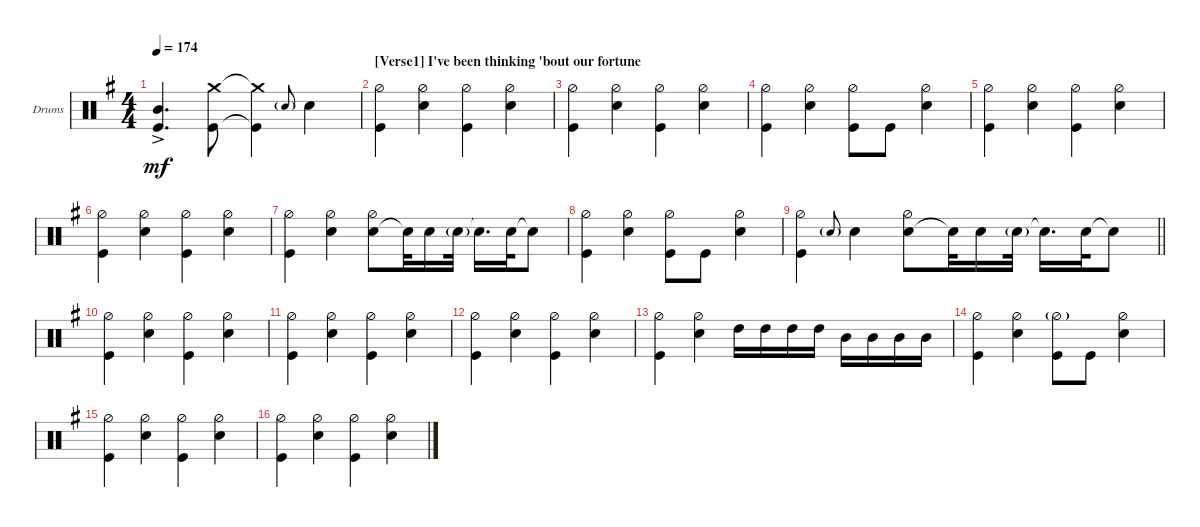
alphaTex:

\bracketExtendMode groupsimilarinstruments
\firstSystemTrackNameOrientation horizontal
\otherSystemsTrackNameOrientation horizontal
\track ("Drumkit" "Drums") {instrument percussion}
\staff {score}
\articulation defaults
\ts (4 4)
\tempo 174
\clef neutral
\scale
0.333333
\ks eminor
("Kick (hit)" "Mid Tom (hit)"{ac}).4{d dy mf} ("Kick (hit)" "Crash medium (hit)").8 ("Kick (hit)"{t} "Crash medium (hit)"{t}).4 "Snare (hit) 2"{g}.8{gr onbeat} "Snare (hit) 2".4 |
\section ("" "[Verse1] I've been thinking 'bout our fortune")
\scale
0.333333 ("Kick (hit)" "Hi-Hat (half)").4 ("Snare (hit) 2" "Hi-Hat (half)").4 ("Kick (hit)" "Hi-Hat (half)").4 ("Snare (hit) 2" "Hi-Hat (half)").4 |
\scale
0.333333 ("Kick (hit)" "Hi-Hat (half)").4 ("Snare (hit) 2" "Hi-Hat (half)").4 ("Kick (hit)" "Hi-Hat (half)").4 ("Snare (hit) 2" "Hi-Hat (half)").4 |
\scale
0.333333 ("Kick (hit)" "Hi-Hat (half)").4 ("Snare (hit) 2" "Hi-Hat (half)").4 ("Kick (hit)" "Hi-Hat (half)").8 "Kick (hit)".8 ("Snare (hit) 2" "Hi-Hat (half)").4 |
\scale
0.333333 ("Kick (hit)" "Hi-Hat (half)").4 ("Snare (hit) 2" "Hi-Hat (half)").4 ("Kick (hit)" "Hi-Hat (half)").4 ("Snare (hit) 2" "Hi-Hat (half)").4 |
\scale
0.333333 ("Kick (hit)" "Hi-Hat (half)").4 ("Snare (hit) 2" "Hi-Hat (half)").4 ("Kick (hit)" "Hi-Hat (half)").4 ("Snare (hit) 2" "Hi-Hat (half)").4 |
\scale
0.333333 ("Kick (hit)" "Hi-Hat (half)").4 ("Snare (hit) 2" "Hi-Hat (half)").4 ("Snare (hit) 2" "Hi-Hat (half)").8 "Snare (hit) 2"{t}.32 "Snare (hit) 2".16 "Snare (hit) 2"{g}.32 "Snare (hit) 2"{t}.16{d} "Snare (hit) 2".32 "Snare (hit) 2"{t}.8 |
\scale
0.333333 ("Kick (hit)" "Hi-Hat (half)").4 ("Snare (hit) 2" "Hi-Hat (half)").4 ("Kick (hit)" "Hi-Hat (half)").8 "Kick (hit)".8 ("Snare (hit) 2" "Hi-Hat (half)").4 |
\scale
0.333333
\barLineRight lightlight
("Kick (hit)" "Hi-Hat (half)").4 "Snare (hit) 2"{g}.8{gr onbeat} "Snare (hit) 2".4 ("Snare (hit) 2" "Hi-Hat (half)").8 "Snare (hit) 2"{t}.32 "Snare (hit) 2".16 "Snare (hit) 2"{g}.32 "Snare (hit) 2"{t}.16{d} "Snare (hit) 2".32 "Snare (hit) 2"{t}.8 |
\scale
0.333333 ("Kick (hit)" "Hi-Hat (half)").4 ("Snare (hit) 2" "Hi-Hat (half)").4 ("Kick (hit)" "Hi-Hat (half)").4 ("Snare (hit) 2" "Hi-Hat (half)").4 |
\scale
0.333333 ("Kick (hit)" "Hi-Hat (half)").4 ("Snare (hit) 2" "Hi-Hat (half)").4 ("Kick (hit)" "Hi-Hat (half)").4 ("Snare (hit) 2" "Hi-Hat (half)").4 |
\scale
0.333333 ("Kick (hit)" "Hi-Hat (half)").4 ("Snare (hit) 2" "Hi-Hat (half)").4 ("Kick (hit)" "Hi-Hat (half)").4 ("Snare (hit) 2" "Hi-Hat (half)").4 |
\scale
0.333333 ("Kick (hit)" "Hi-Hat (half)").4 ("Snare (hit) 2" "Hi-Hat (half)").4 "High Tom (hit)".16 "High Tom (hit)".16 "High Tom (hit)".16 "High Tom (hit)".16 "Mid Tom (hit)".16 "Mid Tom (hit)".16 "Mid Tom (hit)".16 "Mid Tom (hit)".16 |
\scale
0.333333 ("Kick (hit)" "Hi-Hat (half)").4 ("Snare (hit) 2" "Hi-Hat (half)").4 ("Kick (hit)" "Hi-Hat (half)"{g}).8 "Kick (hit)".8 ("Snare (hit) 2" "Hi-Hat (half)").4 |
\scale
0.333333 ("Kick (hit)" "Hi-Hat (half)").4 ("Snare (hit) 2" "Hi-Hat (half)").4 ("Kick (hit)" "Hi-Hat (half)").4 ("Snare (hit) 2" "Hi-Hat (half)").4 |
\scale
0.333333 ("Kick (hit)" "Hi-Hat (half)").4 ("Snare (hit) 2" "Hi-Hat (half)").4 ("Kick (hit)" "Hi-Hat (half)").4 ("Snare (hit) 2" "Hi-Hat (half)").4
